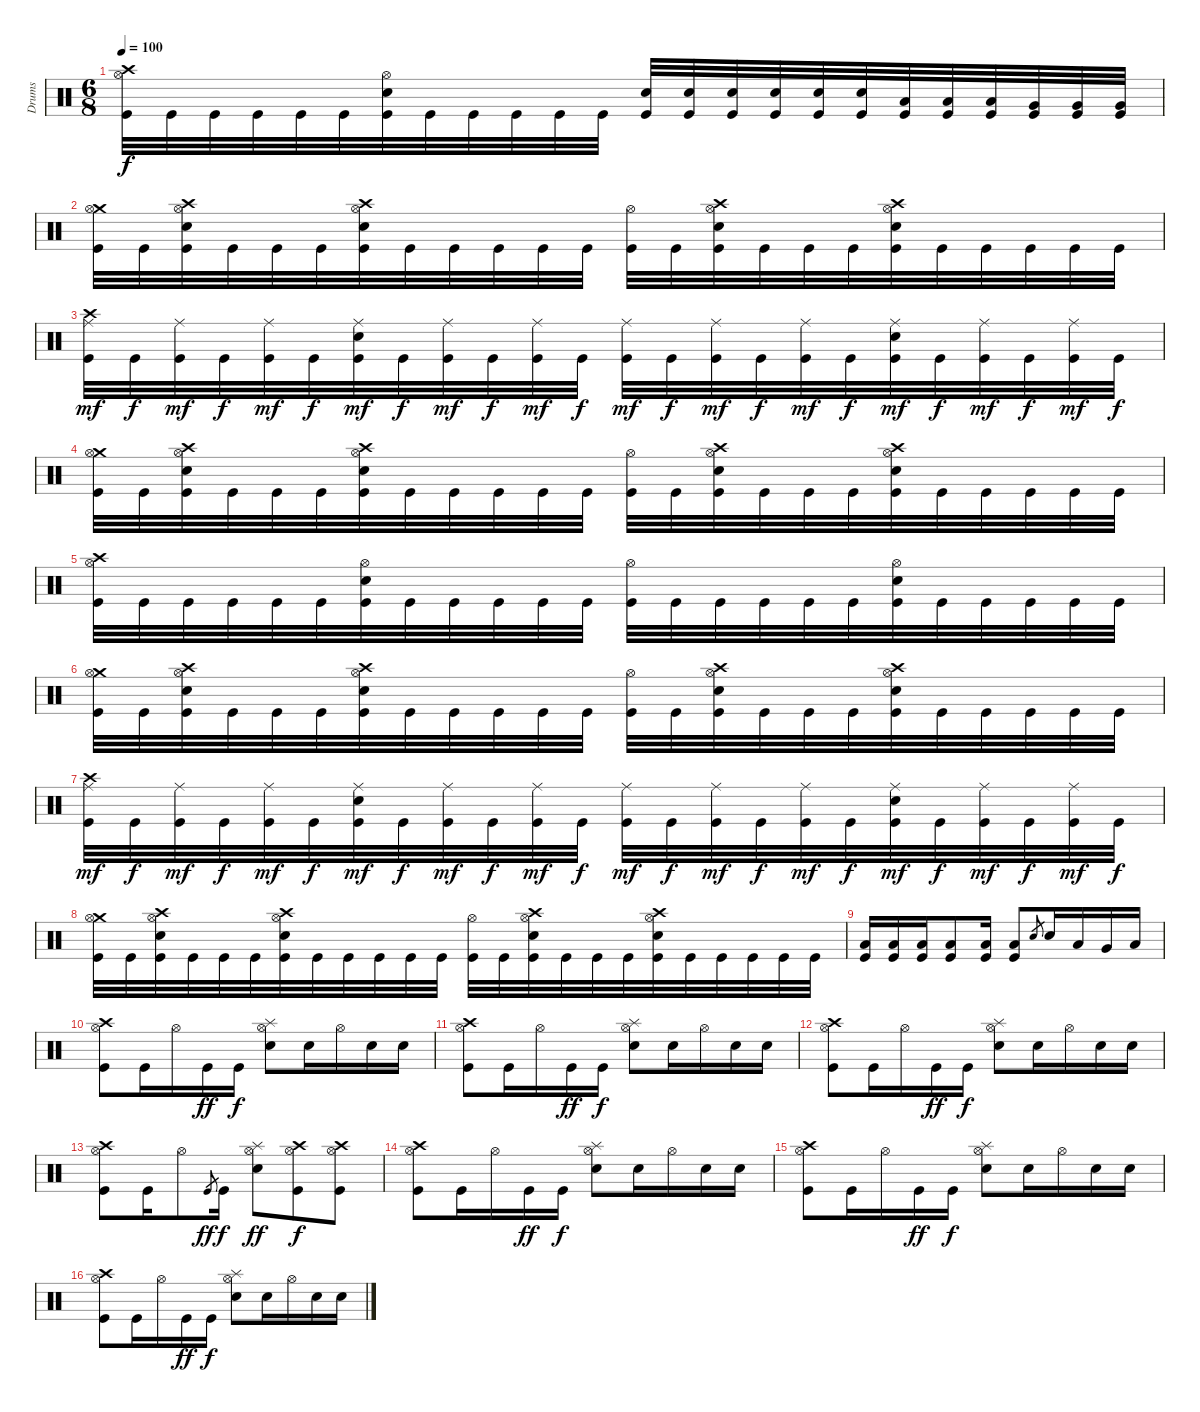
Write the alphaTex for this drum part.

\track ("Drums" "Drums") {instrument percussion}
\staff {score}
\articulation defaults
\ts (6 8)
\tempo 100
\clef neutral
\ks c
("Crash high (hit)" "Hi-Hat (open)" "Kick (hit)").32{dy f} "Kick (hit)".32 "Kick (hit)".32 "Kick (hit)".32 "Kick (hit)".32 "Kick (hit)".32 ("Hi-Hat (open)" "Electric Snare (hit)" "Kick (hit)").32 "Kick (hit)".32 "Kick (hit)".32 "Kick (hit)".32 "Kick (hit)".32 "Kick (hit)".32 ("Electric Snare (hit)" "Kick (hit)").32 ("Electric Snare (hit)" "Kick (hit)").32 ("Electric Snare (hit)" "Kick (hit)").32 ("Electric Snare (hit)" "Kick (hit)").32 ("Electric Snare (hit)" "Kick (hit)").32 ("Electric Snare (hit)" "Kick (hit)").32 ("Low Tom (hit)" "Kick (hit)").32 ("Low Tom (hit)" "Kick (hit)").32 ("Low Tom (hit)" "Kick (hit)").32 ("Very Low Tom (hit)" "Kick (hit)").32 ("Very Low Tom (hit)" "Kick (hit)").32 ("Very Low Tom (hit)" "Kick (hit)").32 |
("Crash medium (hit)" "Hi-Hat (open)" "Kick (hit)").32 "Kick (hit)".32 ("Crash high (hit)" "Hi-Hat (open)" "Electric Snare (hit)" "Kick (hit)").32 "Kick (hit)".32 "Kick (hit)".32 "Kick (hit)".32 ("Crash high (hit)" "Hi-Hat (open)" "Electric Snare (hit)" "Kick (hit)").32 "Kick (hit)".32 "Kick (hit)".32 "Kick (hit)".32 "Kick (hit)".32 "Kick (hit)".32 ("Hi-Hat (open)" "Kick (hit)").32 "Kick (hit)".32 ("Crash high (hit)" "Hi-Hat (open)" "Electric Snare (hit)" "Kick (hit)").32 "Kick (hit)".32 "Kick (hit)".32 "Kick (hit)".32 ("Crash high (hit)" "Hi-Hat (open)" "Electric Snare (hit)" "Kick (hit)").32 "Kick (hit)".32 "Kick (hit)".32 "Kick (hit)".32 "Kick (hit)".32 "Kick (hit)".32 |
("Crash high (hit)" "Ride (middle)" "Kick (hit)").32{dy mf} "Kick (hit)".32{dy f} ("Ride (middle)" "Kick (hit)").32{dy mf} "Kick (hit)".32{dy f} ("Ride (middle)" "Kick (hit)").32{dy mf} "Kick (hit)".32{dy f} ("Ride (middle)" "Electric Snare (hit)" "Kick (hit)").32{dy mf} "Kick (hit)".32{dy f} ("Ride (middle)" "Kick (hit)").32{dy mf} "Kick (hit)".32{dy f} ("Ride (middle)" "Kick (hit)").32{dy mf} "Kick (hit)".32{dy f} ("Ride (middle)" "Kick (hit)").32{dy mf} "Kick (hit)".32{dy f} ("Ride (middle)" "Kick (hit)").32{dy mf} "Kick (hit)".32{dy f} ("Ride (middle)" "Kick (hit)").32{dy mf} "Kick (hit)".32{dy f} ("Ride (middle)" "Electric Snare (hit)" "Kick (hit)").32{dy mf} "Kick (hit)".32{dy f} ("Ride (middle)" "Kick (hit)").32{dy mf} "Kick (hit)".32{dy f} ("Ride (middle)" "Kick (hit)").32{dy mf} "Kick (hit)".32{dy f} |
("Crash medium (hit)" "Hi-Hat (open)" "Kick (hit)").32 "Kick (hit)".32 ("Crash high (hit)" "Hi-Hat (open)" "Electric Snare (hit)" "Kick (hit)").32 "Kick (hit)".32 "Kick (hit)".32 "Kick (hit)".32 ("Crash high (hit)" "Hi-Hat (open)" "Electric Snare (hit)" "Kick (hit)").32 "Kick (hit)".32 "Kick (hit)".32 "Kick (hit)".32 "Kick (hit)".32 "Kick (hit)".32 ("Hi-Hat (open)" "Kick (hit)").32 "Kick (hit)".32 ("Crash high (hit)" "Hi-Hat (open)" "Electric Snare (hit)" "Kick (hit)").32 "Kick (hit)".32 "Kick (hit)".32 "Kick (hit)".32 ("Crash high (hit)" "Hi-Hat (open)" "Electric Snare (hit)" "Kick (hit)").32 "Kick (hit)".32 "Kick (hit)".32 "Kick (hit)".32 "Kick (hit)".32 "Kick (hit)".32 |
("Crash high (hit)" "Hi-Hat (open)" "Kick (hit)").32 "Kick (hit)".32 "Kick (hit)".32 "Kick (hit)".32 "Kick (hit)".32 "Kick (hit)".32 ("Hi-Hat (open)" "Electric Snare (hit)" "Kick (hit)").32 "Kick (hit)".32 "Kick (hit)".32 "Kick (hit)".32 "Kick (hit)".32 "Kick (hit)".32 ("Hi-Hat (open)" "Kick (hit)").32 "Kick (hit)".32 "Kick (hit)".32 "Kick (hit)".32 "Kick (hit)".32 "Kick (hit)".32 ("Hi-Hat (open)" "Electric Snare (hit)" "Kick (hit)").32 "Kick (hit)".32 "Kick (hit)".32 "Kick (hit)".32 "Kick (hit)".32 "Kick (hit)".32 |
("Crash medium (hit)" "Hi-Hat (open)" "Kick (hit)").32 "Kick (hit)".32 ("Crash high (hit)" "Hi-Hat (open)" "Electric Snare (hit)" "Kick (hit)").32 "Kick (hit)".32 "Kick (hit)".32 "Kick (hit)".32 ("Crash high (hit)" "Hi-Hat (open)" "Electric Snare (hit)" "Kick (hit)").32 "Kick (hit)".32 "Kick (hit)".32 "Kick (hit)".32 "Kick (hit)".32 "Kick (hit)".32 ("Hi-Hat (open)" "Kick (hit)").32 "Kick (hit)".32 ("Crash high (hit)" "Hi-Hat (open)" "Electric Snare (hit)" "Kick (hit)").32 "Kick (hit)".32 "Kick (hit)".32 "Kick (hit)".32 ("Crash high (hit)" "Hi-Hat (open)" "Electric Snare (hit)" "Kick (hit)").32 "Kick (hit)".32 "Kick (hit)".32 "Kick (hit)".32 "Kick (hit)".32 "Kick (hit)".32 |
("Crash high (hit)" "Ride (middle)" "Kick (hit)").32{dy mf} "Kick (hit)".32{dy f} ("Ride (middle)" "Kick (hit)").32{dy mf} "Kick (hit)".32{dy f} ("Ride (middle)" "Kick (hit)").32{dy mf} "Kick (hit)".32{dy f} ("Ride (middle)" "Electric Snare (hit)" "Kick (hit)").32{dy mf} "Kick (hit)".32{dy f} ("Ride (middle)" "Kick (hit)").32{dy mf} "Kick (hit)".32{dy f} ("Ride (middle)" "Kick (hit)").32{dy mf} "Kick (hit)".32{dy f} ("Ride (middle)" "Kick (hit)").32{dy mf} "Kick (hit)".32{dy f} ("Ride (middle)" "Kick (hit)").32{dy mf} "Kick (hit)".32{dy f} ("Ride (middle)" "Kick (hit)").32{dy mf} "Kick (hit)".32{dy f} ("Ride (middle)" "Electric Snare (hit)" "Kick (hit)").32{dy mf} "Kick (hit)".32{dy f} ("Ride (middle)" "Kick (hit)").32{dy mf} "Kick (hit)".32{dy f} ("Ride (middle)" "Kick (hit)").32{dy mf} "Kick (hit)".32{dy f} |
("Crash medium (hit)" "Hi-Hat (open)" "Kick (hit)").32 "Kick (hit)".32 ("Crash high (hit)" "Hi-Hat (open)" "Electric Snare (hit)" "Kick (hit)").32 "Kick (hit)".32 "Kick (hit)".32 "Kick (hit)".32 ("Crash high (hit)" "Hi-Hat (open)" "Electric Snare (hit)" "Kick (hit)").32 "Kick (hit)".32 "Kick (hit)".32 "Kick (hit)".32 "Kick (hit)".32 "Kick (hit)".32 ("Hi-Hat (open)" "Kick (hit)").32 "Kick (hit)".32 ("Crash high (hit)" "Hi-Hat (open)" "Electric Snare (hit)" "Kick (hit)").32 "Kick (hit)".32 "Kick (hit)".32 "Kick (hit)".32 ("Crash high (hit)" "Hi-Hat (open)" "Electric Snare (hit)" "Kick (hit)").32 "Kick (hit)".32 "Kick (hit)".32 "Kick (hit)".32 "Kick (hit)".32 "Kick (hit)".32 |
("Low Floor Tom (hit)" "Kick (hit)").16 ("Low Floor Tom (hit)" "Kick (hit)").16 ("Low Floor Tom (hit)" "Kick (hit)").16 ("Low Floor Tom (hit)" "Kick (hit)").8 ("Low Floor Tom (hit)" "Kick (hit)").16 ("Low Floor Tom (hit)" "Kick (hit)").8 "Electric Snare (hit)".8{gr} "Electric Snare (hit)".16 "Low Tom (hit)".16 "Very Low Tom (hit)".16 "Low Floor Tom (hit)".16 |
("Crash high (hit)" "Hi-Hat (open)" "Kick (hit)").8 "Kick (hit)".16 "Hi-Hat (open)".16 "Kick (hit)".16{dy ff} "Kick (hit)".16{dy f} ("Splash (hit)" "Hi-Hat (open)" "Electric Snare (hit)").8 "Electric Snare (hit)".16 "Hi-Hat (open)".16 "Electric Snare (hit)".16 "Electric Snare (hit)".16 |
("Crash high (hit)" "Hi-Hat (open)" "Kick (hit)").8 "Kick (hit)".16 "Hi-Hat (open)".16 "Kick (hit)".16{dy ff} "Kick (hit)".16{dy f} ("Splash (hit)" "Hi-Hat (open)" "Electric Snare (hit)").8 "Electric Snare (hit)".16 "Hi-Hat (open)".16 "Electric Snare (hit)".16 "Electric Snare (hit)".16 |
("Crash high (hit)" "Hi-Hat (open)" "Kick (hit)").8 "Kick (hit)".16 "Hi-Hat (open)".16 "Kick (hit)".16{dy ff} "Kick (hit)".16{dy f} ("Splash (hit)" "Hi-Hat (open)" "Electric Snare (hit)").8 "Electric Snare (hit)".16 "Hi-Hat (open)".16 "Electric Snare (hit)".16 "Electric Snare (hit)".16 |
("Crash high (hit)" "Hi-Hat (open)" "Kick (hit)").8 "Kick (hit)".16 "Hi-Hat (open)".8 "Kick (hit)".8{gr dy ff} "Kick (hit)".16{dy f} ("Splash (hit)" "Hi-Hat (open)" "Electric Snare (hit)").8{dy ff} ("Crash high (hit)" "Hi-Hat (open)" "Kick (hit)").8{dy f} ("Crash high (hit)" "Hi-Hat (open)" "Kick (hit)").8 |
("Crash high (hit)" "Hi-Hat (open)" "Kick (hit)").8 "Kick (hit)".16 "Hi-Hat (open)".16 "Kick (hit)".16{dy ff} "Kick (hit)".16{dy f} ("Splash (hit)" "Hi-Hat (open)" "Electric Snare (hit)").8 "Electric Snare (hit)".16 "Hi-Hat (open)".16 "Electric Snare (hit)".16 "Electric Snare (hit)".16 |
("Crash high (hit)" "Hi-Hat (open)" "Kick (hit)").8 "Kick (hit)".16 "Hi-Hat (open)".16 "Kick (hit)".16{dy ff} "Kick (hit)".16{dy f} ("Splash (hit)" "Hi-Hat (open)" "Electric Snare (hit)").8 "Electric Snare (hit)".16 "Hi-Hat (open)".16 "Electric Snare (hit)".16 "Electric Snare (hit)".16 |
("Crash high (hit)" "Hi-Hat (open)" "Kick (hit)").8 "Kick (hit)".16 "Hi-Hat (open)".16 "Kick (hit)".16{dy ff} "Kick (hit)".16{dy f} ("Splash (hit)" "Hi-Hat (open)" "Electric Snare (hit)").8 "Electric Snare (hit)".16 "Hi-Hat (open)".16 "Electric Snare (hit)".16 "Electric Snare (hit)".16
